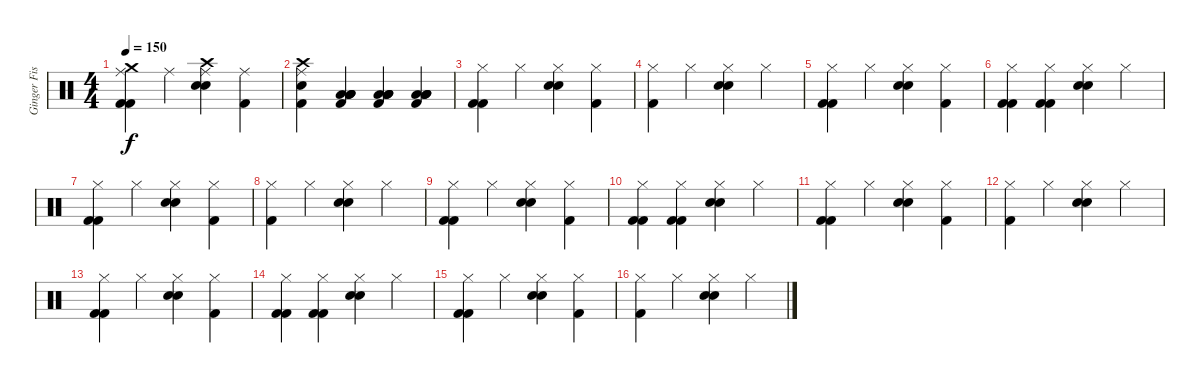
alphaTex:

\track ("Ginger Fish" "Ginger Fis") {instrument percussion}
\staff {score}
\articulation defaults
\ts (4 4)
\tempo 150
\clef neutral
\ks c
("Crash medium (hit)" "Ride (middle)" "Kick (hit) 2" "Kick (hit) 2").4{dy f} "Ride (middle)".4 ("Crash high (hit)" "Ride (middle)" "Electric Snare (hit)" "Electric Snare (hit)").4 ("Ride (middle)" "Kick (hit) 2").4 |
("Crash high (hit)" "Ride (middle)" "Electric Snare (hit)" "Kick (hit) 2").4 ("Kick (hit) 2" "Low Tom (hit)" "Low Tom (hit)" "Low Tom (hit)" "Low Tom (hit)").4 ("Kick (hit) 2" "Low Tom (hit)" "Low Tom (hit)" "Low Tom (hit)" "Low Tom (hit)").4 ("Kick (hit) 2" "Low Tom (hit)" "Low Tom (hit)" "Low Tom (hit)" "Low Tom (hit)").4 |
("Hi-Hat (closed)" "Kick (hit) 2" "Kick (hit) 2").4 "Hi-Hat (closed)".4 ("Hi-Hat (closed)" "Snare (hit) 2" "Snare (hit) 2").4 ("Hi-Hat (closed)" "Kick (hit) 2").4 |
("Hi-Hat (closed)" "Kick (hit) 2").4 "Hi-Hat (closed)".4 ("Hi-Hat (closed)" "Snare (hit) 2" "Snare (hit) 2").4 "Hi-Hat (closed)".4 |
("Hi-Hat (closed)" "Kick (hit) 2" "Kick (hit) 2").4 "Hi-Hat (closed)".4 ("Hi-Hat (closed)" "Snare (hit) 2" "Snare (hit) 2").4 ("Hi-Hat (closed)" "Kick (hit) 2").4 |
("Hi-Hat (closed)" "Kick (hit) 2" "Kick (hit) 2").4 ("Hi-Hat (closed)" "Kick (hit) 2" "Kick (hit) 2").4 ("Hi-Hat (closed)" "Snare (hit) 2" "Snare (hit) 2").4 "Hi-Hat (closed)".4 |
("Hi-Hat (closed)" "Kick (hit) 2" "Kick (hit) 2").4 "Hi-Hat (closed)".4 ("Hi-Hat (closed)" "Snare (hit) 2" "Snare (hit) 2").4 ("Hi-Hat (closed)" "Kick (hit) 2").4 |
("Hi-Hat (closed)" "Kick (hit) 2").4 "Hi-Hat (closed)".4 ("Hi-Hat (closed)" "Snare (hit) 2" "Snare (hit) 2").4 "Hi-Hat (closed)".4 |
("Hi-Hat (closed)" "Kick (hit) 2" "Kick (hit) 2").4 "Hi-Hat (closed)".4 ("Hi-Hat (closed)" "Snare (hit) 2" "Snare (hit) 2").4 ("Hi-Hat (closed)" "Kick (hit) 2").4 |
("Hi-Hat (closed)" "Kick (hit) 2" "Kick (hit) 2").4 ("Hi-Hat (closed)" "Kick (hit) 2" "Kick (hit) 2").4 ("Hi-Hat (closed)" "Snare (hit) 2" "Snare (hit) 2").4 "Hi-Hat (closed)".4 |
("Hi-Hat (closed)" "Kick (hit) 2" "Kick (hit) 2").4 "Hi-Hat (closed)".4 ("Hi-Hat (closed)" "Snare (hit) 2" "Snare (hit) 2").4 ("Hi-Hat (closed)" "Kick (hit) 2").4 |
("Hi-Hat (closed)" "Kick (hit) 2").4 "Hi-Hat (closed)".4 ("Hi-Hat (closed)" "Snare (hit) 2" "Snare (hit) 2").4 "Hi-Hat (closed)".4 |
("Hi-Hat (closed)" "Kick (hit) 2" "Kick (hit) 2").4 "Hi-Hat (closed)".4 ("Hi-Hat (closed)" "Snare (hit) 2" "Snare (hit) 2").4 ("Hi-Hat (closed)" "Kick (hit) 2").4 |
("Hi-Hat (closed)" "Kick (hit) 2" "Kick (hit) 2").4 ("Hi-Hat (closed)" "Kick (hit) 2" "Kick (hit) 2").4 ("Hi-Hat (closed)" "Snare (hit) 2" "Snare (hit) 2").4 "Hi-Hat (closed)".4 |
("Hi-Hat (closed)" "Kick (hit) 2" "Kick (hit) 2").4 "Hi-Hat (closed)".4 ("Hi-Hat (closed)" "Snare (hit) 2" "Snare (hit) 2").4 ("Hi-Hat (closed)" "Kick (hit) 2").4 |
("Hi-Hat (closed)" "Kick (hit) 2").4 "Hi-Hat (closed)".4 ("Hi-Hat (closed)" "Snare (hit) 2" "Snare (hit) 2").4 "Hi-Hat (closed)".4
